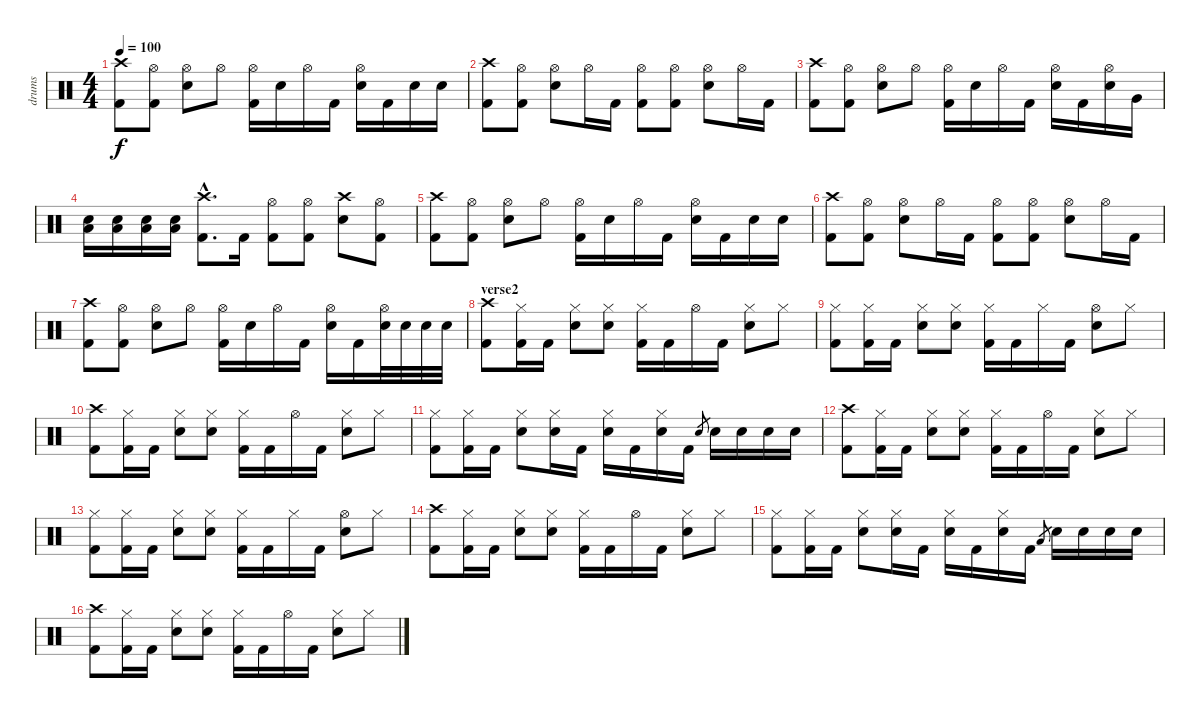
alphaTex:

\track ("drums" "drums") {instrument percussion}
\staff {score}
\articulation defaults
\ts (4 4)
\tempo 100
\clef neutral
\ks c
("Crash high (hit)" "Kick (hit) 2").8{dy f} ("Hi-Hat (open)" "Kick (hit) 2").8 ("Hi-Hat (open)" "Electric Snare (hit)").8 "Hi-Hat (open)".8 ("Hi-Hat (open)" "Kick (hit) 2").16 "Electric Snare (hit)".16 "Hi-Hat (open)".16 "Kick (hit) 2".16 ("Hi-Hat (open)" "Electric Snare (hit)").16 "Kick (hit) 2".16 "Electric Snare (hit)".16 "Electric Snare (hit)".16 |
("Crash high (hit)" "Kick (hit) 2").8 ("Hi-Hat (open)" "Kick (hit) 2").8 ("Hi-Hat (open)" "Electric Snare (hit)").8 "Hi-Hat (open)".16 "Kick (hit) 2".16 ("Hi-Hat (open)" "Kick (hit) 2").8 ("Hi-Hat (open)" "Kick (hit) 2").8 ("Hi-Hat (open)" "Electric Snare (hit)").8 "Hi-Hat (open)".16 "Kick (hit) 2".16 |
("Crash high (hit)" "Kick (hit) 2").8 ("Hi-Hat (open)" "Kick (hit) 2").8 ("Hi-Hat (open)" "Electric Snare (hit)").8 "Hi-Hat (open)".8 ("Hi-Hat (open)" "Kick (hit) 2").16 "Electric Snare (hit)".16 "Hi-Hat (open)".16 "Kick (hit) 2".16 ("Hi-Hat (open)" "Electric Snare (hit)").16 "Kick (hit) 2".16 ("Hi-Hat (open)" "Electric Snare (hit)").16 "Very Low Tom (hit)".16 |
("Low Floor Tom (hit)" "Electric Snare (hit)").16 ("Low Floor Tom (hit)" "Electric Snare (hit)").16 ("Low Floor Tom (hit)" "Electric Snare (hit)").16 ("Low Floor Tom (hit)" "Electric Snare (hit)").16 ("Crash high (hit)"{hac} "Kick (hit) 2"{hac}).8{d} "Kick (hit) 2".16 ("Hi-Hat (open)" "Kick (hit) 2").8 ("Hi-Hat (open)" "Kick (hit) 2").8 ("Crash high (hit)" "Electric Snare (hit)").8 ("Hi-Hat (open)" "Kick (hit) 2").8 |
("Crash high (hit)" "Kick (hit) 2").8 ("Hi-Hat (open)" "Kick (hit) 2").8 ("Hi-Hat (open)" "Electric Snare (hit)").8 "Hi-Hat (open)".8 ("Hi-Hat (open)" "Kick (hit) 2").16 "Electric Snare (hit)".16 "Hi-Hat (open)".16 "Kick (hit) 2".16 ("Hi-Hat (open)" "Electric Snare (hit)").16 "Kick (hit) 2".16 "Electric Snare (hit)".16 "Electric Snare (hit)".16 |
("Crash high (hit)" "Kick (hit) 2").8 ("Hi-Hat (open)" "Kick (hit) 2").8 ("Hi-Hat (open)" "Electric Snare (hit)").8 "Hi-Hat (open)".16 "Kick (hit) 2".16 ("Hi-Hat (open)" "Kick (hit) 2").8 ("Hi-Hat (open)" "Kick (hit) 2").8 ("Hi-Hat (open)" "Electric Snare (hit)").8 "Hi-Hat (open)".16 "Kick (hit) 2".16 |
("Crash high (hit)" "Kick (hit) 2").8 ("Hi-Hat (open)" "Kick (hit) 2").8 ("Hi-Hat (open)" "Electric Snare (hit)").8 "Hi-Hat (open)".8 ("Hi-Hat (open)" "Kick (hit) 2").16 "Electric Snare (hit)".16 "Hi-Hat (open)".16 "Kick (hit) 2".16 ("Hi-Hat (open)" "Electric Snare (hit)").16 "Kick (hit) 2".16 ("Hi-Hat (open)" "Electric Snare (hit)").32 "Electric Snare (hit)".32 "Electric Snare (hit)".32 "Electric Snare (hit)".32 |
\section ("" "verse2")
("Crash high (hit)" "Kick (hit) 2").8 ("Hi-Hat (closed)" "Kick (hit) 2").16 "Kick (hit) 2".16 ("Hi-Hat (closed)" "Electric Snare (hit)").8 ("Hi-Hat (closed)" "Electric Snare (hit)").8 ("Hi-Hat (closed)" "Kick (hit) 2").16 "Kick (hit) 2".16 "Hi-Hat (open)".16 "Kick (hit) 2".16 ("Hi-Hat (closed)" "Electric Snare (hit)").8 "Hi-Hat (closed)".8 |
("Hi-Hat (closed)" "Kick (hit) 2").8 ("Hi-Hat (closed)" "Kick (hit) 2").16 "Kick (hit) 2".16 ("Hi-Hat (closed)" "Electric Snare (hit)").8 ("Hi-Hat (closed)" "Electric Snare (hit)").8 ("Hi-Hat (closed)" "Kick (hit) 2").16 "Kick (hit) 2".16 "Hi-Hat (closed)".16 "Kick (hit) 2".16 ("Hi-Hat (open)" "Electric Snare (hit)").8 "Hi-Hat (closed)".8 |
("Crash high (hit)" "Kick (hit) 2").8 ("Hi-Hat (closed)" "Kick (hit) 2").16 "Kick (hit) 2".16 ("Hi-Hat (closed)" "Electric Snare (hit)").8 ("Hi-Hat (closed)" "Electric Snare (hit)").8 ("Hi-Hat (closed)" "Kick (hit) 2").16 "Kick (hit) 2".16 "Hi-Hat (open)".16 "Kick (hit) 2".16 ("Hi-Hat (closed)" "Electric Snare (hit)").8 "Hi-Hat (closed)".8 |
("Hi-Hat (closed)" "Kick (hit) 2").8 ("Hi-Hat (closed)" "Kick (hit) 2").16 "Kick (hit) 2".16 ("Hi-Hat (closed)" "Electric Snare (hit)").8 ("Hi-Hat (closed)" "Electric Snare (hit)").16 "Kick (hit) 2".16 ("Hi-Hat (closed)" "Electric Snare (hit)").16 "Kick (hit) 2".16 ("Hi-Hat (closed)" "Electric Snare (hit)").16 "Kick (hit) 2".16 "Electric Snare (hit)".8{gr} "Electric Snare (hit)".16 "Electric Snare (hit)".16 "Electric Snare (hit)".16 "Electric Snare (hit)".16 |
("Crash high (hit)" "Kick (hit) 2").8 ("Hi-Hat (closed)" "Kick (hit) 2").16 "Kick (hit) 2".16 ("Hi-Hat (closed)" "Electric Snare (hit)").8 ("Hi-Hat (closed)" "Electric Snare (hit)").8 ("Hi-Hat (closed)" "Kick (hit) 2").16 "Kick (hit) 2".16 "Hi-Hat (open)".16 "Kick (hit) 2".16 ("Hi-Hat (closed)" "Electric Snare (hit)").8 "Hi-Hat (closed)".8 |
("Hi-Hat (closed)" "Kick (hit) 2").8 ("Hi-Hat (closed)" "Kick (hit) 2").16 "Kick (hit) 2".16 ("Hi-Hat (closed)" "Electric Snare (hit)").8 ("Hi-Hat (closed)" "Electric Snare (hit)").8 ("Hi-Hat (closed)" "Kick (hit) 2").16 "Kick (hit) 2".16 "Hi-Hat (closed)".16 "Kick (hit) 2".16 ("Hi-Hat (open)" "Electric Snare (hit)").8 "Hi-Hat (closed)".8 |
("Crash high (hit)" "Kick (hit) 2").8 ("Hi-Hat (closed)" "Kick (hit) 2").16 "Kick (hit) 2".16 ("Hi-Hat (closed)" "Electric Snare (hit)").8 ("Hi-Hat (closed)" "Electric Snare (hit)").8 ("Hi-Hat (closed)" "Kick (hit) 2").16 "Kick (hit) 2".16 "Hi-Hat (open)".16 "Kick (hit) 2".16 ("Hi-Hat (closed)" "Electric Snare (hit)").8 "Hi-Hat (closed)".8 |
("Hi-Hat (closed)" "Kick (hit) 2").8 ("Hi-Hat (closed)" "Kick (hit) 2").16 "Kick (hit) 2".16 ("Hi-Hat (closed)" "Electric Snare (hit)").8 ("Hi-Hat (closed)" "Electric Snare (hit)").16 "Kick (hit) 2".16 ("Hi-Hat (closed)" "Electric Snare (hit)").16 "Kick (hit) 2".16 ("Hi-Hat (closed)" "Electric Snare (hit)").16 "Kick (hit) 2".16 "Low Tom (hit)".8{gr} "Electric Snare (hit)".16 "Electric Snare (hit)".16 "Electric Snare (hit)".16 "Electric Snare (hit)".16 |
("Crash high (hit)" "Kick (hit) 2").8 ("Hi-Hat (closed)" "Kick (hit) 2").16 "Kick (hit) 2".16 ("Hi-Hat (closed)" "Electric Snare (hit)").8 ("Hi-Hat (closed)" "Electric Snare (hit)").8 ("Hi-Hat (closed)" "Kick (hit) 2").16 "Kick (hit) 2".16 "Hi-Hat (open)".16 "Kick (hit) 2".16 ("Hi-Hat (closed)" "Electric Snare (hit)").8 "Hi-Hat (closed)".8
